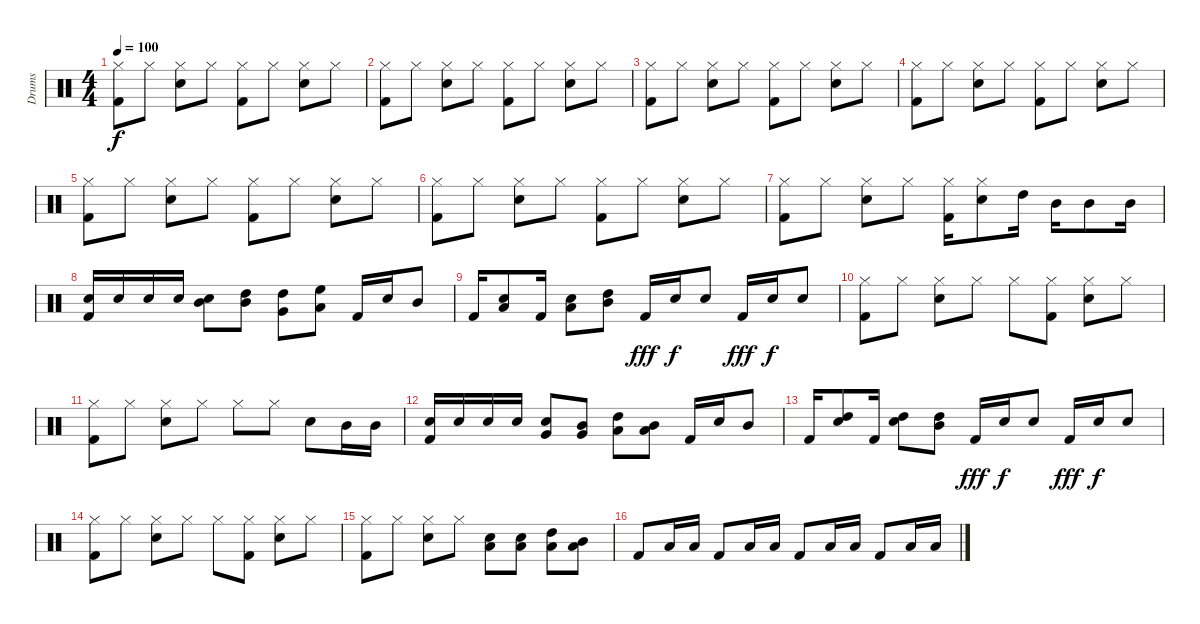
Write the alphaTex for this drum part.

\track ("Drums" "Drums") {instrument percussion}
\staff {score}
\articulation defaults
\ts (4 4)
\tempo 100
\clef neutral
\ks c
("Kick (hit) 2" "Hi-Hat (closed)").8{dy f} "Hi-Hat (closed)".8 ("Snare (hit) 2" "Hi-Hat (closed)").8 "Hi-Hat (closed)".8 ("Kick (hit) 2" "Hi-Hat (closed)").8 "Hi-Hat (closed)".8 ("Snare (hit) 2" "Hi-Hat (closed)").8 "Hi-Hat (closed)".8 |
("Kick (hit) 2" "Hi-Hat (closed)").8 "Hi-Hat (closed)".8 ("Snare (hit) 2" "Hi-Hat (closed)").8 "Hi-Hat (closed)".8 ("Kick (hit) 2" "Hi-Hat (closed)").8 "Hi-Hat (closed)".8 ("Snare (hit) 2" "Hi-Hat (closed)").8 "Hi-Hat (closed)".8 |
("Kick (hit) 2" "Hi-Hat (closed)").8 "Hi-Hat (closed)".8 ("Snare (hit) 2" "Hi-Hat (closed)").8 "Hi-Hat (closed)".8 ("Kick (hit) 2" "Hi-Hat (closed)").8 "Hi-Hat (closed)".8 ("Snare (hit) 2" "Hi-Hat (closed)").8 "Hi-Hat (closed)".8 |
("Kick (hit) 2" "Hi-Hat (closed)").8 "Hi-Hat (closed)".8 ("Snare (hit) 2" "Hi-Hat (closed)").8 "Hi-Hat (closed)".8 ("Kick (hit) 2" "Hi-Hat (closed)").8 "Hi-Hat (closed)".8 ("Snare (hit) 2" "Hi-Hat (closed)").8 "Hi-Hat (closed)".8 |
("Kick (hit) 2" "Hi-Hat (closed)").8 "Hi-Hat (closed)".8 ("Snare (hit) 2" "Hi-Hat (closed)").8 "Hi-Hat (closed)".8 ("Kick (hit) 2" "Hi-Hat (closed)").8 "Hi-Hat (closed)".8 ("Snare (hit) 2" "Hi-Hat (closed)").8 "Hi-Hat (closed)".8 |
("Kick (hit) 2" "Hi-Hat (closed)").8 "Hi-Hat (closed)".8 ("Snare (hit) 2" "Hi-Hat (closed)").8 "Hi-Hat (closed)".8 ("Kick (hit) 2" "Hi-Hat (closed)").8 "Hi-Hat (closed)".8 ("Snare (hit) 2" "Hi-Hat (closed)").8 "Hi-Hat (closed)".8 |
("Kick (hit) 2" "Hi-Hat (closed)").8 "Hi-Hat (closed)".8 ("Snare (hit) 2" "Hi-Hat (closed)").8 "Hi-Hat (closed)".8 ("Kick (hit) 2" "Hi-Hat (closed)").16 ("Snare (hit) 2" "Hi-Hat (closed)").8 "High Tom (hit)".16 "Mid Tom (hit)".16 "Mid Tom (hit)".8 "Mid Tom (hit)".16 |
("Kick (hit) 2" "Snare (hit) 2").16 "Snare (hit) 2".16 "Snare (hit) 2".16 "Snare (hit) 2".16 ("Snare (hit) 2" "Mid Tom (hit)").8 ("Mid Tom (hit)" "High Tom (hit)").8 ("High Tom (hit)" "Very Low Tom (hit)").8 ("Low Tom (hit)" "High Floor Tom (hit)").8 "Kick (hit) 2".16 "Snare (hit) 2".16 "Mid Tom (hit)".8 |
"Kick (hit) 2".16 ("Snare (hit) 2" "Low Tom (hit)").8 "Kick (hit) 2".16 ("Snare (hit) 2" "Low Tom (hit)").8 ("High Tom (hit)" "Mid Tom (hit)").8 "Kick (hit) 2".16{dy fff} "Snare (hit) 2".16{dy f} "Snare (hit) 2".8 "Kick (hit) 2".16{dy fff} "Snare (hit) 2".16{dy f} "Snare (hit) 2".8 |
("Kick (hit) 2" "Hi-Hat (closed)").8 "Hi-Hat (closed)".8 ("Snare (hit) 2" "Hi-Hat (closed)").8 "Hi-Hat (closed)".8 "Hi-Hat (closed)".8 ("Kick (hit) 2" "Hi-Hat (closed)").8 ("Snare (hit) 2" "Hi-Hat (closed)").8 "Hi-Hat (closed)".8 |
("Kick (hit) 2" "Hi-Hat (closed)").8 "Hi-Hat (closed)".8 ("Snare (hit) 2" "Hi-Hat (closed)").8 "Hi-Hat (closed)".8 "Hi-Hat (closed)".8 "Hi-Hat (closed)".8 "Snare (hit) 2".8 "Mid Tom (hit)".16 "Mid Tom (hit)".16 |
("Kick (hit) 2" "Snare (hit) 2").16 "Snare (hit) 2".16 "Snare (hit) 2".16 "Snare (hit) 2".16 ("Snare (hit) 2" "Very Low Tom (hit)").8 ("Mid Tom (hit)" "Very Low Tom (hit)").8 ("High Tom (hit)" "Low Tom (hit)").8 ("Low Tom (hit)" "Mid Tom (hit)").8 "Kick (hit) 2".16 "Snare (hit) 2".16 "Mid Tom (hit)".8 |
"Kick (hit) 2".16 ("Snare (hit) 2" "High Tom (hit)").8 "Kick (hit) 2".16 ("Snare (hit) 2" "High Tom (hit)").8 ("High Tom (hit)" "Mid Tom (hit)").8 "Kick (hit) 2".16{dy fff} "Snare (hit) 2".16{dy f} "Snare (hit) 2".8 "Kick (hit) 2".16{dy fff} "Snare (hit) 2".16{dy f} "Snare (hit) 2".8 |
("Kick (hit) 2" "Hi-Hat (closed)").8 "Hi-Hat (closed)".8 ("Snare (hit) 2" "Hi-Hat (closed)").8 "Hi-Hat (closed)".8 "Hi-Hat (closed)".8 ("Kick (hit) 2" "Hi-Hat (closed)").8 ("Snare (hit) 2" "Hi-Hat (closed)").8 "Hi-Hat (closed)".8 |
("Kick (hit) 2" "Hi-Hat (closed)").8 "Hi-Hat (closed)".8 ("Snare (hit) 2" "Hi-Hat (closed)").8 "Hi-Hat (closed)".8 ("Snare (hit) 2" "Low Tom (hit)").8 ("Snare (hit) 2" "Low Tom (hit)").8 ("High Tom (hit)" "Low Tom (hit)").8 ("Mid Tom (hit)" "Low Tom (hit)").8 |
"Kick (hit) 2".8 "Low Tom (hit)".16 "Low Tom (hit)".16 "Kick (hit) 2".8 "Low Tom (hit)".16 "Low Tom (hit)".16 "Kick (hit) 2".8 "Low Tom (hit)".16 "Low Tom (hit)".16 "Kick (hit) 2".8 "Low Tom (hit)".16 "Low Tom (hit)".16
